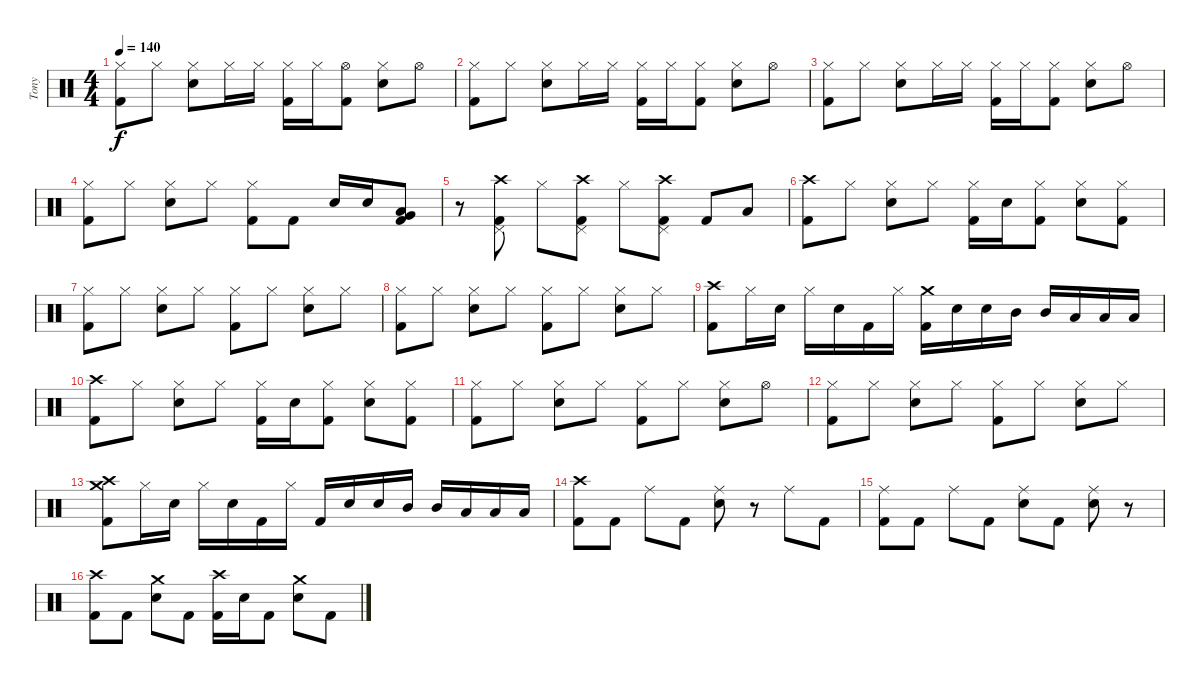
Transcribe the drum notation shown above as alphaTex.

\track ("Tony" "Tony") {instrument percussion}
\staff {score}
\articulation defaults
\ts (4 4)
\tempo 140
\clef neutral
\ks c
("Hi-Hat (closed)" "Kick (hit) 2").8{dy f} "Hi-Hat (closed)".8 ("Hi-Hat (closed)" "Electric Snare (hit)").8 "Hi-Hat (closed)".16 "Hi-Hat (closed)".16 ("Hi-Hat (closed)" "Kick (hit) 2").16 "Hi-Hat (closed)".16 ("Hi-Hat (open)" "Kick (hit) 2").8 ("Hi-Hat (closed)" "Electric Snare (hit)").8 "Hi-Hat (open)".8 |
("Hi-Hat (closed)" "Kick (hit) 2").8 "Hi-Hat (closed)".8 ("Hi-Hat (closed)" "Electric Snare (hit)").8 "Hi-Hat (closed)".16 "Hi-Hat (closed)".16 ("Hi-Hat (closed)" "Kick (hit) 2").16 "Hi-Hat (closed)".16 ("Hi-Hat (closed)" "Kick (hit) 2").8 ("Hi-Hat (closed)" "Electric Snare (hit)").8 "Hi-Hat (open)".8 |
("Hi-Hat (closed)" "Kick (hit) 2").8 "Hi-Hat (closed)".8 ("Hi-Hat (closed)" "Electric Snare (hit)").8 "Hi-Hat (closed)".16 "Hi-Hat (closed)".16 ("Hi-Hat (closed)" "Kick (hit) 2").16 "Hi-Hat (closed)".16 ("Hi-Hat (closed)" "Kick (hit) 2").8 ("Hi-Hat (closed)" "Electric Snare (hit)").8 "Hi-Hat (open)".8 |
("Hi-Hat (closed)" "Kick (hit) 2").8 "Hi-Hat (closed)".8 ("Hi-Hat (closed)" "Electric Snare (hit)").8 "Hi-Hat (closed)".8 ("Hi-Hat (closed)" "Kick (hit) 2").8 "Kick (hit) 2".8 "Electric Snare (hit)".16 "Electric Snare (hit)".16 ("Low Tom (hit)" "Very Low Tom (hit)" "Kick (hit) 2").8 |
r.8 ("Kick (hit) 2" "Pedal Hi-Hat (hit)" "Crash high (hit)").8 "Hi-Hat (closed)".8 ("Kick (hit) 2" "Pedal Hi-Hat (hit)" "Crash high (hit)").8 "Hi-Hat (closed)".8 ("Kick (hit) 2" "Pedal Hi-Hat (hit)" "Crash high (hit)").8 "Kick (hit) 2".8 "Low Tom (hit)".8 |
("Crash high (hit)" "Kick (hit) 2").8 "Hi-Hat (closed)".8 ("Hi-Hat (closed)" "Electric Snare (hit)").8 "Hi-Hat (closed)".8 ("Hi-Hat (closed)" "Kick (hit) 2").16 "Electric Snare (hit)".16 ("Hi-Hat (closed)" "Kick (hit) 2").8 ("Hi-Hat (closed)" "Electric Snare (hit)").8 ("Hi-Hat (closed)" "Kick (hit) 2").8 |
("Hi-Hat (closed)" "Kick (hit) 2").8 "Hi-Hat (closed)".8 ("Hi-Hat (closed)" "Electric Snare (hit)").8 "Hi-Hat (closed)".8 ("Hi-Hat (closed)" "Kick (hit) 2").8 "Hi-Hat (closed)".8 ("Hi-Hat (closed)" "Electric Snare (hit)").8 "Hi-Hat (closed)".8 |
("Hi-Hat (closed)" "Kick (hit) 2").8 "Hi-Hat (closed)".8 ("Hi-Hat (closed)" "Electric Snare (hit)").8 "Hi-Hat (closed)".8 ("Hi-Hat (closed)" "Kick (hit) 2").8 "Hi-Hat (closed)".8 ("Hi-Hat (closed)" "Electric Snare (hit)").8 "Hi-Hat (closed)".8 |
("Crash high (hit)" "Kick (hit) 2").8 "Hi-Hat (closed)".16 "Electric Snare (hit)".16 "Hi-Hat (closed)".16 "Electric Snare (hit)".16 "Kick (hit) 2".16 "Hi-Hat (closed)".16 ("Crash medium (hit)" "Kick (hit) 2").16 "Electric Snare (hit)".16 "Electric Snare (hit)".16 "Mid Tom (hit)".16 "Mid Tom (hit)".16 "Low Tom (hit)".16 "Low Tom (hit)".16 "Low Tom (hit)".16 |
("Crash high (hit)" "Kick (hit) 2").8 "Hi-Hat (closed)".8 ("Hi-Hat (closed)" "Electric Snare (hit)").8 "Hi-Hat (closed)".8 ("Hi-Hat (closed)" "Kick (hit) 2").16 "Electric Snare (hit)".16 ("Hi-Hat (closed)" "Kick (hit) 2").8 ("Hi-Hat (closed)" "Electric Snare (hit)").8 ("Hi-Hat (closed)" "Kick (hit) 2").8 |
("Hi-Hat (closed)" "Kick (hit) 2").8 "Hi-Hat (closed)".8 ("Hi-Hat (closed)" "Electric Snare (hit)").8 "Hi-Hat (closed)".8 ("Hi-Hat (closed)" "Kick (hit) 2").8 "Hi-Hat (closed)".8 ("Hi-Hat (closed)" "Electric Snare (hit)").8 "Hi-Hat (open)".8 |
("Hi-Hat (closed)" "Kick (hit) 2").8 "Hi-Hat (closed)".8 ("Hi-Hat (closed)" "Electric Snare (hit)").8 "Hi-Hat (closed)".8 ("Hi-Hat (closed)" "Kick (hit) 2").8 "Hi-Hat (closed)".8 ("Hi-Hat (closed)" "Electric Snare (hit)").8 "Hi-Hat (closed)".8 |
("Crash high (hit)" "Crash medium (hit)" "Kick (hit) 2").8 "Hi-Hat (closed)".16 "Electric Snare (hit)".16 "Hi-Hat (closed)".16 "Electric Snare (hit)".16 "Kick (hit) 2".16 "Hi-Hat (closed)".16 "Kick (hit) 2".16 "Electric Snare (hit)".16 "Electric Snare (hit)".16 "Mid Tom (hit)".16 "Mid Tom (hit)".16 "Low Tom (hit)".16 "Low Tom (hit)".16 "Low Tom (hit)".16 |
("Crash high (hit)" "Kick (hit) 2").8 "Kick (hit) 2".8 "Ride (middle)".8 "Kick (hit) 2".8 ("Ride (middle)" "Electric Snare (hit)").8 r.8 "Ride (middle)".8 "Kick (hit) 2".8 |
("Ride (middle)" "Kick (hit) 2").8 "Kick (hit) 2".8 "Ride (middle)".8 "Kick (hit) 2".8 ("Ride (middle)" "Electric Snare (hit)").8 "Kick (hit) 2".8 ("Ride (middle)" "Electric Snare (hit)").8 r.8 |
("Kick (hit) 2" "Crash high (hit)").8 "Kick (hit) 2".8 ("Electric Snare (hit)" "Crash medium (hit)").8 "Kick (hit) 2".8 ("Kick (hit) 2" "Crash high (hit)").16 "Electric Snare (hit)".16 "Kick (hit) 2".8 ("Electric Snare (hit)" "Crash medium (hit)").8 "Kick (hit) 2".8
